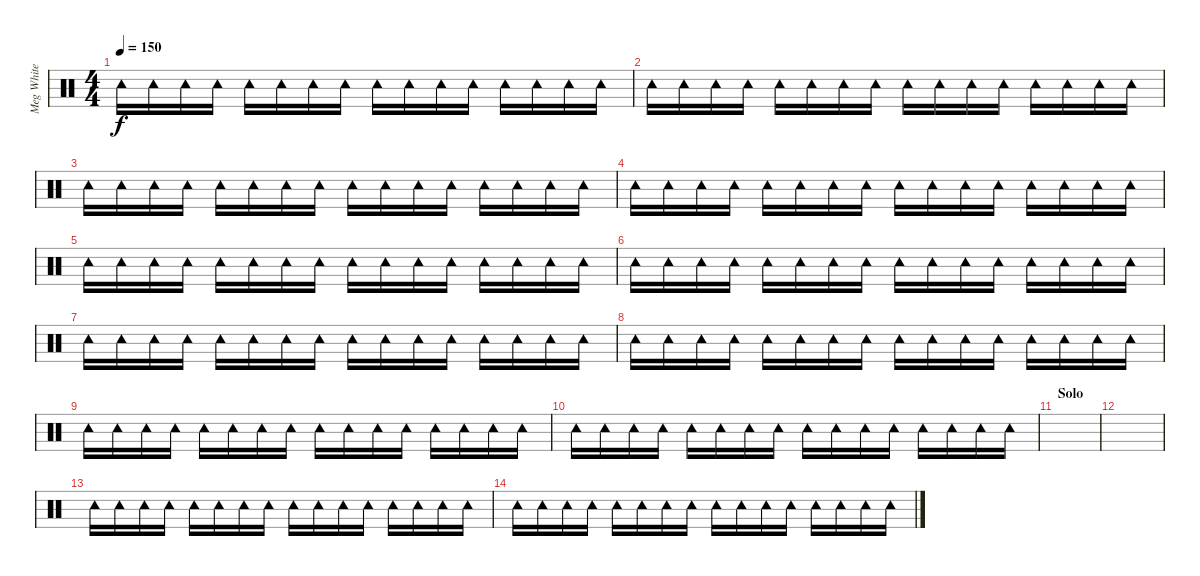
\track ("Meg White - Tambourine" "Meg White ") {instrument percussion}
\staff {score}
\articulation defaults
\ts (4 4)
\tempo 150
\clef neutral
\ks c "Tambourine (hit)".16{dy f} "Tambourine (hit)".16 "Tambourine (hit)".16 "Tambourine (hit)".16 "Tambourine (hit)".16 "Tambourine (hit)".16 "Tambourine (hit)".16 "Tambourine (hit)".16 "Tambourine (hit)".16 "Tambourine (hit)".16 "Tambourine (hit)".16 "Tambourine (hit)".16 "Tambourine (hit)".16 "Tambourine (hit)".16 "Tambourine (hit)".16 "Tambourine (hit)".16
|
"Tambourine (hit)".16 "Tambourine (hit)".16 "Tambourine (hit)".16 "Tambourine (hit)".16 "Tambourine (hit)".16 "Tambourine (hit)".16 "Tambourine (hit)".16 "Tambourine (hit)".16 "Tambourine (hit)".16 "Tambourine (hit)".16 "Tambourine (hit)".16 "Tambourine (hit)".16 "Tambourine (hit)".16 "Tambourine (hit)".16 "Tambourine (hit)".16 "Tambourine (hit)".16 |
"Tambourine (hit)".16 "Tambourine (hit)".16 "Tambourine (hit)".16 "Tambourine (hit)".16 "Tambourine (hit)".16 "Tambourine (hit)".16 "Tambourine (hit)".16 "Tambourine (hit)".16 "Tambourine (hit)".16 "Tambourine (hit)".16 "Tambourine (hit)".16 "Tambourine (hit)".16 "Tambourine (hit)".16 "Tambourine (hit)".16 "Tambourine (hit)".16 "Tambourine (hit)".16 |
"Tambourine (hit)".16 "Tambourine (hit)".16 "Tambourine (hit)".16 "Tambourine (hit)".16 "Tambourine (hit)".16 "Tambourine (hit)".16 "Tambourine (hit)".16 "Tambourine (hit)".16 "Tambourine (hit)".16 "Tambourine (hit)".16 "Tambourine (hit)".16 "Tambourine (hit)".16 "Tambourine (hit)".16 "Tambourine (hit)".16 "Tambourine (hit)".16 "Tambourine (hit)".16 |
"Tambourine (hit)".16 "Tambourine (hit)".16 "Tambourine (hit)".16 "Tambourine (hit)".16 "Tambourine (hit)".16 "Tambourine (hit)".16 "Tambourine (hit)".16 "Tambourine (hit)".16 "Tambourine (hit)".16 "Tambourine (hit)".16 "Tambourine (hit)".16 "Tambourine (hit)".16 "Tambourine (hit)".16 "Tambourine (hit)".16 "Tambourine (hit)".16 "Tambourine (hit)".16 |
"Tambourine (hit)".16 "Tambourine (hit)".16 "Tambourine (hit)".16 "Tambourine (hit)".16 "Tambourine (hit)".16 "Tambourine (hit)".16 "Tambourine (hit)".16 "Tambourine (hit)".16 "Tambourine (hit)".16 "Tambourine (hit)".16 "Tambourine (hit)".16 "Tambourine (hit)".16 "Tambourine (hit)".16 "Tambourine (hit)".16 "Tambourine (hit)".16 "Tambourine (hit)".16 |
"Tambourine (hit)".16 "Tambourine (hit)".16 "Tambourine (hit)".16 "Tambourine (hit)".16 "Tambourine (hit)".16 "Tambourine (hit)".16 "Tambourine (hit)".16 "Tambourine (hit)".16 "Tambourine (hit)".16 "Tambourine (hit)".16 "Tambourine (hit)".16 "Tambourine (hit)".16 "Tambourine (hit)".16 "Tambourine (hit)".16 "Tambourine (hit)".16 "Tambourine (hit)".16 |
"Tambourine (hit)".16 "Tambourine (hit)".16 "Tambourine (hit)".16 "Tambourine (hit)".16 "Tambourine (hit)".16 "Tambourine (hit)".16 "Tambourine (hit)".16 "Tambourine (hit)".16 "Tambourine (hit)".16 "Tambourine (hit)".16 "Tambourine (hit)".16 "Tambourine (hit)".16 "Tambourine (hit)".16 "Tambourine (hit)".16 "Tambourine (hit)".16 "Tambourine (hit)".16 |
"Tambourine (hit)".16 "Tambourine (hit)".16 "Tambourine (hit)".16 "Tambourine (hit)".16 "Tambourine (hit)".16 "Tambourine (hit)".16 "Tambourine (hit)".16 "Tambourine (hit)".16 "Tambourine (hit)".16 "Tambourine (hit)".16 "Tambourine (hit)".16 "Tambourine (hit)".16 "Tambourine (hit)".16 "Tambourine (hit)".16 "Tambourine (hit)".16 "Tambourine (hit)".16 |
"Tambourine (hit)".16 "Tambourine (hit)".16 "Tambourine (hit)".16 "Tambourine (hit)".16 "Tambourine (hit)".16 "Tambourine (hit)".16 "Tambourine (hit)".16 "Tambourine (hit)".16 "Tambourine (hit)".16 "Tambourine (hit)".16 "Tambourine (hit)".16 "Tambourine (hit)".16 "Tambourine (hit)".16 "Tambourine (hit)".16 "Tambourine (hit)".16 "Tambourine (hit)".16 |
\section ("" "Solo")
|
|
"Tambourine (hit)".16 "Tambourine (hit)".16 "Tambourine (hit)".16 "Tambourine (hit)".16 "Tambourine (hit)".16 "Tambourine (hit)".16 "Tambourine (hit)".16 "Tambourine (hit)".16 "Tambourine (hit)".16 "Tambourine (hit)".16 "Tambourine (hit)".16 "Tambourine (hit)".16 "Tambourine (hit)".16 "Tambourine (hit)".16 "Tambourine (hit)".16 "Tambourine (hit)".16 |
"Tambourine (hit)".16 "Tambourine (hit)".16 "Tambourine (hit)".16 "Tambourine (hit)".16 "Tambourine (hit)".16 "Tambourine (hit)".16 "Tambourine (hit)".16 "Tambourine (hit)".16 "Tambourine (hit)".16 "Tambourine (hit)".16 "Tambourine (hit)".16 "Tambourine (hit)".16 "Tambourine (hit)".16 "Tambourine (hit)".16 "Tambourine (hit)".16 "Tambourine (hit)".16
